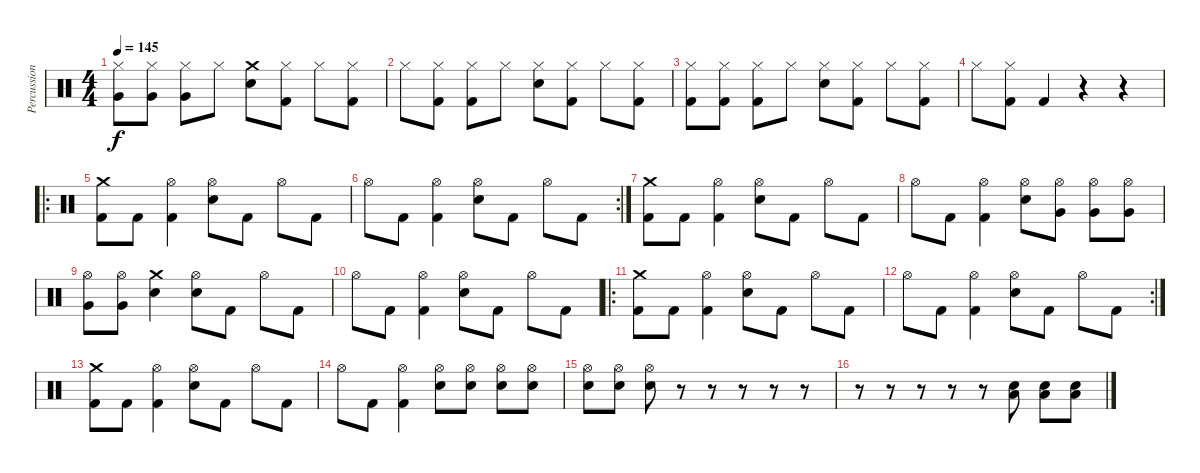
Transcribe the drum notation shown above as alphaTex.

\track ("Percussion" "Percussion") {instrument percussion}
\staff {score}
\articulation defaults
\ts (4 4)
\tempo 145
\clef neutral
\ks c
("Hi-Hat (closed)" "Very Low Tom (hit)").8{dy f} ("Hi-Hat (closed)" "Very Low Tom (hit)").8 ("Hi-Hat (closed)" "Very Low Tom (hit)").8 "Hi-Hat (closed)".8 ("Crash medium (hit)" "Electric Snare (hit)").8 ("Hi-Hat (closed)" "Kick (hit) 2").8 "Hi-Hat (closed)".8 ("Hi-Hat (closed)" "Kick (hit) 2").8 |
"Hi-Hat (closed)".8 ("Hi-Hat (closed)" "Kick (hit) 2").8 ("Hi-Hat (closed)" "Kick (hit) 2").8 "Hi-Hat (closed)".8 ("Hi-Hat (closed)" "Electric Snare (hit)").8 ("Hi-Hat (closed)" "Kick (hit) 2").8 "Hi-Hat (closed)".8 ("Hi-Hat (closed)" "Kick (hit) 2").8 |
("Hi-Hat (closed)" "Kick (hit) 2").8 ("Hi-Hat (closed)" "Kick (hit) 2").8 ("Hi-Hat (closed)" "Kick (hit) 2").8 "Hi-Hat (closed)".8 ("Hi-Hat (closed)" "Electric Snare (hit)").8 ("Hi-Hat (closed)" "Kick (hit) 2").8 "Hi-Hat (closed)".8 ("Hi-Hat (closed)" "Kick (hit) 2").8 |
"Hi-Hat (closed)".8 ("Hi-Hat (closed)" "Kick (hit) 2").8 "Kick (hit) 2".4 r.4 r.4 |
\ro
("Crash medium (hit)" "Kick (hit) 2").8 "Kick (hit) 2".8 ("Hi-Hat (open)" "Kick (hit) 2").4 ("Hi-Hat (open)" "Electric Snare (hit)").8 "Kick (hit) 2".8 "Hi-Hat (open)".8 "Kick (hit) 2".8 |
\rc 2 "Hi-Hat (open)".8 "Kick (hit) 2".8
("Hi-Hat (open)" "Kick (hit) 2").4 ("Hi-Hat (open)" "Electric Snare (hit)").8 "Kick (hit) 2".8 "Hi-Hat (open)".8 "Kick (hit) 2".8 |
("Crash medium (hit)" "Kick (hit) 2").8 "Kick (hit) 2".8 ("Hi-Hat (open)" "Kick (hit) 2").4 ("Hi-Hat (open)" "Electric Snare (hit)").8 "Kick (hit) 2".8 "Hi-Hat (open)".8 "Kick (hit) 2".8 |
"Hi-Hat (open)".8 "Kick (hit) 2".8 ("Hi-Hat (open)" "Kick (hit) 2").4 ("Hi-Hat (open)" "Electric Snare (hit)").8 ("Hi-Hat (open)" "Very Low Tom (hit)").8 ("Hi-Hat (open)" "Very Low Tom (hit)").8 ("Hi-Hat (open)" "Very Low Tom (hit)").8 |
("Hi-Hat (open)" "Very Low Tom (hit)").8 ("Hi-Hat (open)" "Very Low Tom (hit)").8 ("Crash medium (hit)" "Electric Snare (hit)").4 ("Hi-Hat (open)" "Electric Snare (hit)").8 "Kick (hit) 2".8 "Hi-Hat (open)".8 "Kick (hit) 2".8 |
"Hi-Hat (open)".8 "Kick (hit) 2".8 ("Hi-Hat (open)" "Kick (hit) 2").4 ("Hi-Hat (open)" "Electric Snare (hit)").8 "Kick (hit) 2".8 "Hi-Hat (open)".8 "Kick (hit) 2".8 |
\ro
("Crash medium (hit)" "Kick (hit) 2").8 "Kick (hit) 2".8 ("Hi-Hat (open)" "Kick (hit) 2").4 ("Hi-Hat (open)" "Electric Snare (hit)").8 "Kick (hit) 2".8 "Hi-Hat (open)".8 "Kick (hit) 2".8 |
\rc 2 "Hi-Hat (open)".8 "Kick (hit) 2".8
("Hi-Hat (open)" "Kick (hit) 2").4 ("Hi-Hat (open)" "Electric Snare (hit)").8 "Kick (hit) 2".8 "Hi-Hat (open)".8 "Kick (hit) 2".8 |
("Crash medium (hit)" "Kick (hit) 2").8 "Kick (hit) 2".8 ("Hi-Hat (open)" "Kick (hit) 2").4 ("Hi-Hat (open)" "Electric Snare (hit)").8 "Kick (hit) 2".8 "Hi-Hat (open)".8 "Kick (hit) 2".8 |
"Hi-Hat (open)".8 "Kick (hit) 2".8 ("Hi-Hat (open)" "Kick (hit) 2").4 ("Hi-Hat (open)" "Electric Snare (hit)").8 ("Hi-Hat (open)" "Electric Snare (hit)").8 ("Hi-Hat (open)" "Electric Snare (hit)").8 ("Hi-Hat (open)" "Electric Snare (hit)").8 |
("Hi-Hat (open)" "Electric Snare (hit)").8 ("Hi-Hat (open)" "Electric Snare (hit)").8 ("Hi-Hat (open)" "Electric Snare (hit)").8 r.8 r.8 r.8 r.8 r.8 |
r.8 r.8 r.8 r.8 r.8 ("Low Tom (hit)" "Electric Snare (hit)").8 ("Low Tom (hit)" "Electric Snare (hit)").8 ("Low Tom (hit)" "Electric Snare (hit)").8
